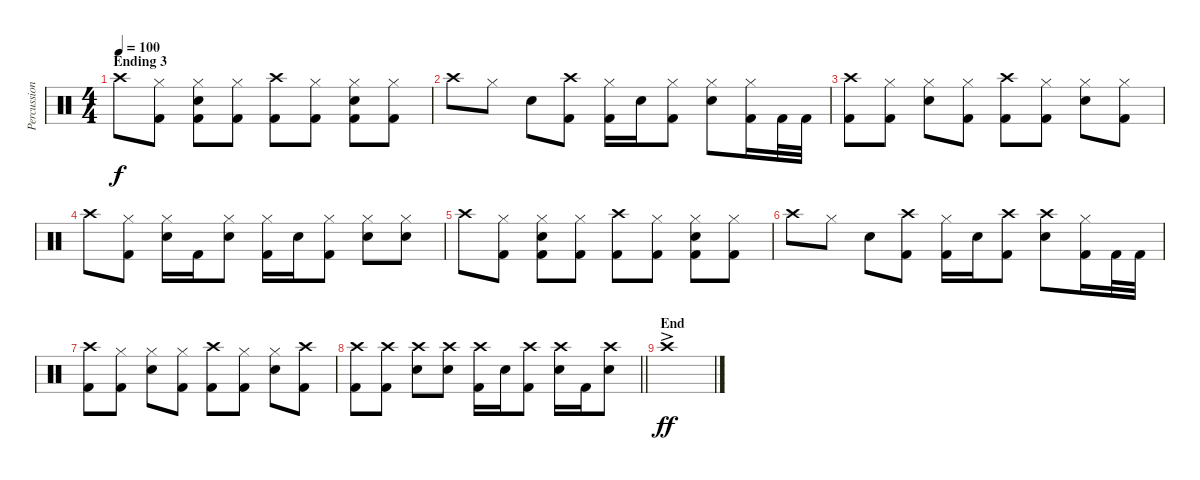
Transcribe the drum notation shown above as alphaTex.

\track ("Percussion" "Percussion") {instrument percussion}
\staff {score}
\articulation defaults
\ts (4 4)
\section ("" "Ending 3")
\tempo 100
\clef neutral
\ks c "Crash high (hit)".8{dy f}
("Hi-Hat (closed)" "Kick (hit) 2").8 ("Electric Snare (hit)" "Hi-Hat (closed)" "Kick (hit) 2").8 ("Hi-Hat (closed)" "Kick (hit) 2").8 ("Crash high (hit)" "Kick (hit) 2").8 ("Hi-Hat (closed)" "Kick (hit) 2").8 ("Electric Snare (hit)" "Hi-Hat (closed)" "Kick (hit) 2").8 ("Hi-Hat (closed)" "Kick (hit) 2").8 |
"Crash high (hit)".8 "Hi-Hat (closed)".8 "Electric Snare (hit)".8 ("Crash high (hit)" "Kick (hit) 2").8 ("Hi-Hat (closed)" "Kick (hit) 2").16 "Electric Snare (hit)".16 ("Hi-Hat (closed)" "Kick (hit) 2").8 ("Electric Snare (hit)" "Hi-Hat (closed)").8 ("Hi-Hat (closed)" "Kick (hit) 2").16 "Kick (hit) 2".32 "Kick (hit) 2".32 |
("Crash high (hit)" "Kick (hit) 2").8 ("Hi-Hat (closed)" "Kick (hit) 2").8 ("Electric Snare (hit)" "Hi-Hat (closed)").8 ("Hi-Hat (closed)" "Kick (hit) 2").8 ("Crash high (hit)" "Kick (hit) 2").8 ("Hi-Hat (closed)" "Kick (hit) 2").8 ("Electric Snare (hit)" "Hi-Hat (closed)").8 ("Hi-Hat (closed)" "Kick (hit) 2").8 |
"Crash high (hit)".8 ("Hi-Hat (closed)" "Kick (hit) 2").8 ("Electric Snare (hit)" "Hi-Hat (closed)").16 "Kick (hit) 2".16 ("Electric Snare (hit)" "Hi-Hat (closed)").8 ("Hi-Hat (closed)" "Kick (hit) 2").16 "Electric Snare (hit)".16 ("Hi-Hat (closed)" "Kick (hit) 2").8 ("Electric Snare (hit)" "Hi-Hat (closed)").8 ("Electric Snare (hit)" "Hi-Hat (closed)").8 |
"Crash high (hit)".8 ("Hi-Hat (closed)" "Kick (hit) 2").8 ("Electric Snare (hit)" "Hi-Hat (closed)" "Kick (hit) 2").8 ("Hi-Hat (closed)" "Kick (hit) 2").8 ("Crash high (hit)" "Kick (hit) 2").8 ("Hi-Hat (closed)" "Kick (hit) 2").8 ("Electric Snare (hit)" "Hi-Hat (closed)" "Kick (hit) 2").8 ("Hi-Hat (closed)" "Kick (hit) 2").8 |
"Crash high (hit)".8 "Hi-Hat (closed)".8 "Electric Snare (hit)".8 ("Crash high (hit)" "Kick (hit) 2").8 ("Hi-Hat (closed)" "Kick (hit) 2").16 "Electric Snare (hit)".16 ("Crash high (hit)" "Kick (hit) 2").8 ("Electric Snare (hit)" "Crash high (hit)").8 ("Hi-Hat (closed)" "Kick (hit) 2").16 "Kick (hit) 2".32 "Kick (hit) 2".32 |
("Crash high (hit)" "Kick (hit) 2").8 ("Hi-Hat (closed)" "Kick (hit) 2").8 ("Electric Snare (hit)" "Hi-Hat (closed)").8 ("Hi-Hat (closed)" "Kick (hit) 2").8 ("Crash high (hit)" "Kick (hit) 2").8 ("Hi-Hat (closed)" "Kick (hit) 2").8 ("Electric Snare (hit)" "Hi-Hat (closed)").8 ("Crash high (hit)" "Kick (hit) 2").8 |
\barLineRight lightlight
("Crash high (hit)" "Kick (hit) 2").8 ("Crash high (hit)" "Kick (hit) 2").8 ("Electric Snare (hit)" "Crash high (hit)").8 ("Electric Snare (hit)" "Crash high (hit)").8 ("Crash high (hit)" "Kick (hit) 2").16 "Electric Snare (hit)".16 ("Crash high (hit)" "Kick (hit) 2").8 ("Electric Snare (hit)" "Crash high (hit)").16 "Kick (hit) 2".16 ("Electric Snare (hit)" "Crash high (hit)").8 |
\section ("" "End")
"Crash high (hit)"{ac}.1{dy ff}
